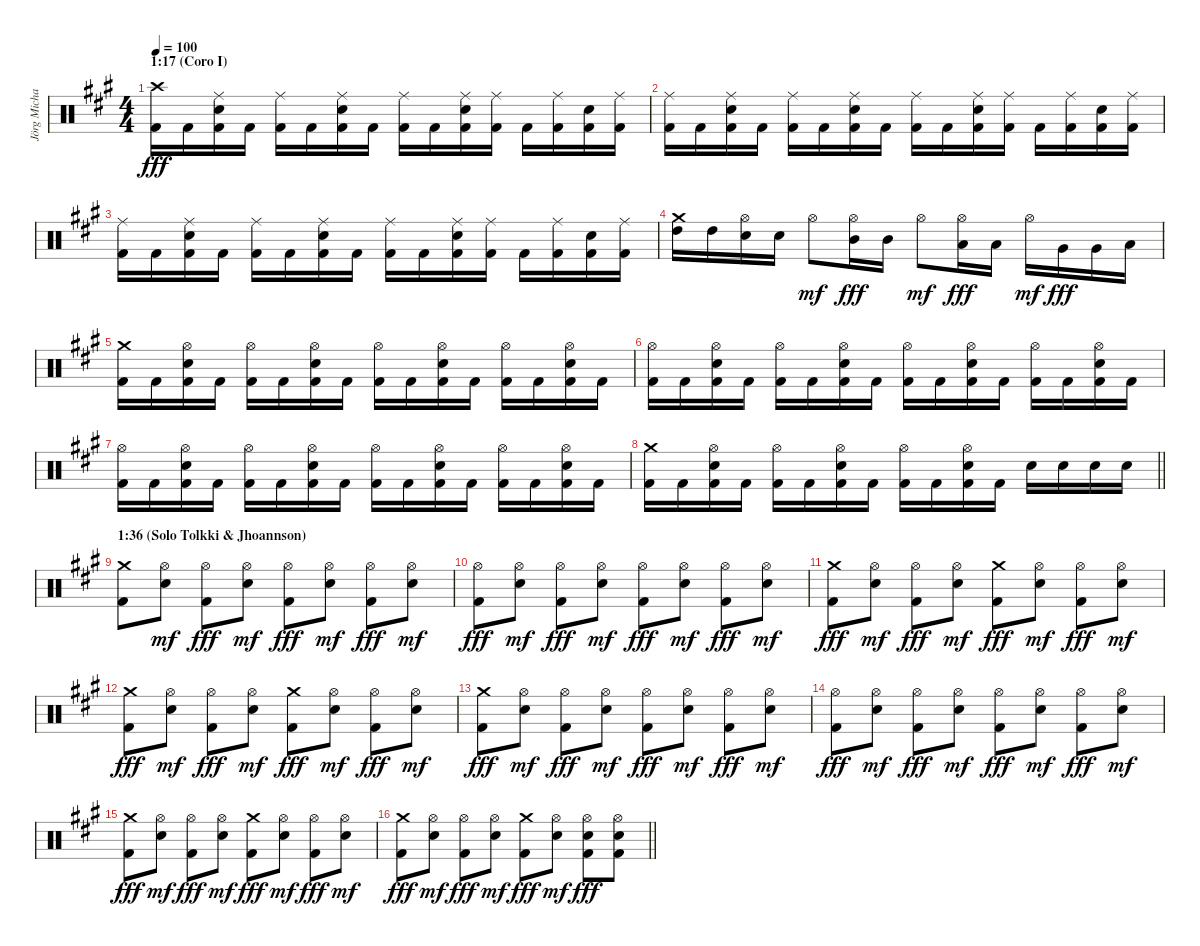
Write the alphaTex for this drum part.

\track ("Jörg Michael (Batería)" "Jörg Micha") {instrument percussion}
\staff {score}
\articulation defaults
\ts (4 4)
\section ("" "1:17 (Coro I)")
\tempo 100
\clef neutral
\ks a
("Crash high (hit)" "Kick (hit) 2").16{dy fff volume 13} "Kick (hit) 2".16 ("Ride (middle)" "Snare (hit) 2" "Kick (hit) 2").16 "Kick (hit) 2".16 ("Ride (middle)" "Kick (hit) 2").16 "Kick (hit) 2".16 ("Ride (middle)" "Snare (hit) 2" "Kick (hit) 2").16 "Kick (hit) 2".16 ("Ride (middle)" "Kick (hit) 2").16 "Kick (hit) 2".16 ("Ride (middle)" "Snare (hit) 2" "Kick (hit) 2").16 ("Ride (middle)" "Kick (hit) 2").16 "Kick (hit) 2".16 ("Ride (middle)" "Kick (hit) 2").16 ("Snare (hit) 2" "Kick (hit) 2").16 ("Ride (middle)" "Kick (hit) 2").16 |
("Ride (middle)" "Kick (hit) 2").16 "Kick (hit) 2".16 ("Ride (middle)" "Snare (hit) 2" "Kick (hit) 2").16 "Kick (hit) 2".16 ("Ride (middle)" "Kick (hit) 2").16 "Kick (hit) 2".16 ("Ride (middle)" "Snare (hit) 2" "Kick (hit) 2").16 "Kick (hit) 2".16 ("Ride (middle)" "Kick (hit) 2").16 "Kick (hit) 2".16 ("Ride (middle)" "Snare (hit) 2" "Kick (hit) 2").16 ("Ride (middle)" "Kick (hit) 2").16 "Kick (hit) 2".16 ("Ride (middle)" "Kick (hit) 2").16 ("Snare (hit) 2" "Kick (hit) 2").16 ("Ride (middle)" "Kick (hit) 2").16 |
("Ride (middle)" "Kick (hit) 2").16 "Kick (hit) 2".16 ("Ride (middle)" "Snare (hit) 2" "Kick (hit) 2").16 "Kick (hit) 2".16 ("Ride (middle)" "Kick (hit) 2").16 "Kick (hit) 2".16 ("Ride (middle)" "Snare (hit) 2" "Kick (hit) 2").16 "Kick (hit) 2".16 ("Ride (middle)" "Kick (hit) 2").16 "Kick (hit) 2".16 ("Ride (middle)" "Snare (hit) 2" "Kick (hit) 2").16 ("Ride (middle)" "Kick (hit) 2").16 "Kick (hit) 2".16 ("Ride (middle)" "Kick (hit) 2").16 ("Snare (hit) 2" "Kick (hit) 2").16 ("Ride (middle)" "Kick (hit) 2").16 |
("Crash medium (hit)" "High Tom (hit)").16 "High Tom (hit)".16 ("Hi-Hat (open)" "Snare (hit) 2").16 "Snare (hit) 2".16 "Hi-Hat (open)".8{dy mf} ("Hi-Hat (open)" "Mid Tom (hit)").16{dy fff} "Mid Tom (hit)".16 "Hi-Hat (open)".8{dy mf} ("Hi-Hat (open)" "Low Tom (hit)").16{dy fff} "Low Tom (hit)".16 "Hi-Hat (open)".16{dy mf} "Very Low Tom (hit)".16{dy fff} "Very Low Tom (hit)".16 "Low Floor Tom (hit)".16 |
("Crash medium (hit)" "Kick (hit) 2").16 "Kick (hit) 2".16 ("Hi-Hat (open)" "Snare (hit) 2" "Kick (hit) 2").16 "Kick (hit) 2".16 ("Hi-Hat (open)" "Kick (hit) 2").16 "Kick (hit) 2".16 ("Hi-Hat (open)" "Snare (hit) 2" "Kick (hit) 2").16 "Kick (hit) 2".16 ("Hi-Hat (open)" "Kick (hit) 2").16 "Kick (hit) 2".16 ("Hi-Hat (open)" "Snare (hit) 2" "Kick (hit) 2").16 "Kick (hit) 2".16 ("Hi-Hat (open)" "Kick (hit) 2").16 "Kick (hit) 2".16 ("Hi-Hat (open)" "Snare (hit) 2" "Kick (hit) 2").16 "Kick (hit) 2".16 |
("Hi-Hat (open)" "Kick (hit) 2").16 "Kick (hit) 2".16 ("Hi-Hat (open)" "Snare (hit) 2" "Kick (hit) 2").16 "Kick (hit) 2".16 ("Hi-Hat (open)" "Kick (hit) 2").16 "Kick (hit) 2".16 ("Hi-Hat (open)" "Snare (hit) 2" "Kick (hit) 2").16 "Kick (hit) 2".16 ("Hi-Hat (open)" "Kick (hit) 2").16 "Kick (hit) 2".16 ("Hi-Hat (open)" "Snare (hit) 2" "Kick (hit) 2").16 "Kick (hit) 2".16 ("Hi-Hat (open)" "Kick (hit) 2").16 "Kick (hit) 2".16 ("Hi-Hat (open)" "Snare (hit) 2" "Kick (hit) 2").16 "Kick (hit) 2".16 |
("Hi-Hat (open)" "Kick (hit) 2").16 "Kick (hit) 2".16 ("Hi-Hat (open)" "Snare (hit) 2" "Kick (hit) 2").16 "Kick (hit) 2".16 ("Hi-Hat (open)" "Kick (hit) 2").16 "Kick (hit) 2".16 ("Hi-Hat (open)" "Snare (hit) 2" "Kick (hit) 2").16 "Kick (hit) 2".16 ("Hi-Hat (open)" "Kick (hit) 2").16 "Kick (hit) 2".16 ("Hi-Hat (open)" "Snare (hit) 2" "Kick (hit) 2").16 "Kick (hit) 2".16 ("Hi-Hat (open)" "Kick (hit) 2").16 "Kick (hit) 2".16 ("Hi-Hat (open)" "Snare (hit) 2" "Kick (hit) 2").16 "Kick (hit) 2".16 |
\barLineRight lightlight
("Crash medium (hit)" "Kick (hit) 2").16 "Kick (hit) 2".16 ("Hi-Hat (open)" "Snare (hit) 2" "Kick (hit) 2").16 "Kick (hit) 2".16 ("Hi-Hat (open)" "Kick (hit) 2").16 "Kick (hit) 2".16 ("Hi-Hat (open)" "Snare (hit) 2" "Kick (hit) 2").16 "Kick (hit) 2".16 ("Hi-Hat (open)" "Kick (hit) 2").16 "Kick (hit) 2".16 ("Hi-Hat (open)" "Snare (hit) 2" "Kick (hit) 2").16 "Kick (hit) 2".16 "Snare (hit) 2".16 "Snare (hit) 2".16 "Snare (hit) 2".16 "Snare (hit) 2".16 |
\section ("" "1:36 (Solo Tolkki & Jhoannson)")
("Crash medium (hit)" "Kick (hit) 2").8 ("Hi-Hat (open)" "Snare (hit) 2").8{dy mf} ("Hi-Hat (open)" "Kick (hit) 2").8{dy fff} ("Hi-Hat (open)" "Snare (hit) 2").8{dy mf} ("Hi-Hat (open)" "Kick (hit) 2").8{dy fff} ("Hi-Hat (open)" "Snare (hit) 2").8{dy mf} ("Hi-Hat (open)" "Kick (hit) 2").8{dy fff} ("Hi-Hat (open)" "Snare (hit) 2").8{dy mf} |
("Hi-Hat (open)" "Kick (hit) 2").8{dy fff} ("Hi-Hat (open)" "Snare (hit) 2").8{dy mf} ("Hi-Hat (open)" "Kick (hit) 2").8{dy fff} ("Hi-Hat (open)" "Snare (hit) 2").8{dy mf} ("Hi-Hat (open)" "Kick (hit) 2").8{dy fff} ("Hi-Hat (open)" "Snare (hit) 2").8{dy mf} ("Hi-Hat (open)" "Kick (hit) 2").8{dy fff} ("Hi-Hat (open)" "Snare (hit) 2").8{dy mf} |
("Crash medium (hit)" "Kick (hit) 2").8{dy fff} ("Hi-Hat (open)" "Snare (hit) 2").8{dy mf} ("Hi-Hat (open)" "Kick (hit) 2").8{dy fff} ("Hi-Hat (open)" "Snare (hit) 2").8{dy mf} ("Crash medium (hit)" "Kick (hit) 2").8{dy fff} ("Hi-Hat (open)" "Snare (hit) 2").8{dy mf} ("Hi-Hat (open)" "Kick (hit) 2").8{dy fff} ("Hi-Hat (open)" "Snare (hit) 2").8{dy mf} |
("Crash medium (hit)" "Kick (hit) 2").8{dy fff} ("Hi-Hat (open)" "Snare (hit) 2").8{dy mf} ("Hi-Hat (open)" "Kick (hit) 2").8{dy fff} ("Hi-Hat (open)" "Snare (hit) 2").8{dy mf} ("Crash medium (hit)" "Kick (hit) 2").8{dy fff} ("Hi-Hat (open)" "Snare (hit) 2").8{dy mf} ("Hi-Hat (open)" "Kick (hit) 2").8{dy fff} ("Hi-Hat (open)" "Snare (hit) 2").8{dy mf} |
("Crash medium (hit)" "Kick (hit) 2").8{dy fff} ("Hi-Hat (open)" "Snare (hit) 2").8{dy mf} ("Hi-Hat (open)" "Kick (hit) 2").8{dy fff} ("Hi-Hat (open)" "Snare (hit) 2").8{dy mf} ("Hi-Hat (open)" "Kick (hit) 2").8{dy fff} ("Hi-Hat (open)" "Snare (hit) 2").8{dy mf} ("Hi-Hat (open)" "Kick (hit) 2").8{dy fff} ("Hi-Hat (open)" "Snare (hit) 2").8{dy mf} |
("Hi-Hat (open)" "Kick (hit) 2").8{dy fff} ("Hi-Hat (open)" "Snare (hit) 2").8{dy mf} ("Hi-Hat (open)" "Kick (hit) 2").8{dy fff} ("Hi-Hat (open)" "Snare (hit) 2").8{dy mf} ("Hi-Hat (open)" "Kick (hit) 2").8{dy fff} ("Hi-Hat (open)" "Snare (hit) 2").8{dy mf} ("Hi-Hat (open)" "Kick (hit) 2").8{dy fff} ("Hi-Hat (open)" "Snare (hit) 2").8{dy mf} |
("Crash medium (hit)" "Kick (hit) 2").8{dy fff} ("Hi-Hat (open)" "Snare (hit) 2").8{dy mf} ("Hi-Hat (open)" "Kick (hit) 2").8{dy fff} ("Hi-Hat (open)" "Snare (hit) 2").8{dy mf} ("Crash medium (hit)" "Kick (hit) 2").8{dy fff} ("Hi-Hat (open)" "Snare (hit) 2").8{dy mf} ("Hi-Hat (open)" "Kick (hit) 2").8{dy fff} ("Hi-Hat (open)" "Snare (hit) 2").8{dy mf} |
\barLineRight lightlight
("Crash medium (hit)" "Kick (hit) 2").8{dy fff} ("Hi-Hat (open)" "Snare (hit) 2").8{dy mf} ("Hi-Hat (open)" "Kick (hit) 2").8{dy fff} ("Hi-Hat (open)" "Snare (hit) 2").8{dy mf} ("Crash medium (hit)" "Kick (hit) 2").8{dy fff} ("Hi-Hat (open)" "Snare (hit) 2").8{dy mf} ("Hi-Hat (open)" "Snare (hit) 2" "Kick (hit) 2").8{dy fff} ("Hi-Hat (open)" "Snare (hit) 2" "Kick (hit) 2").8
